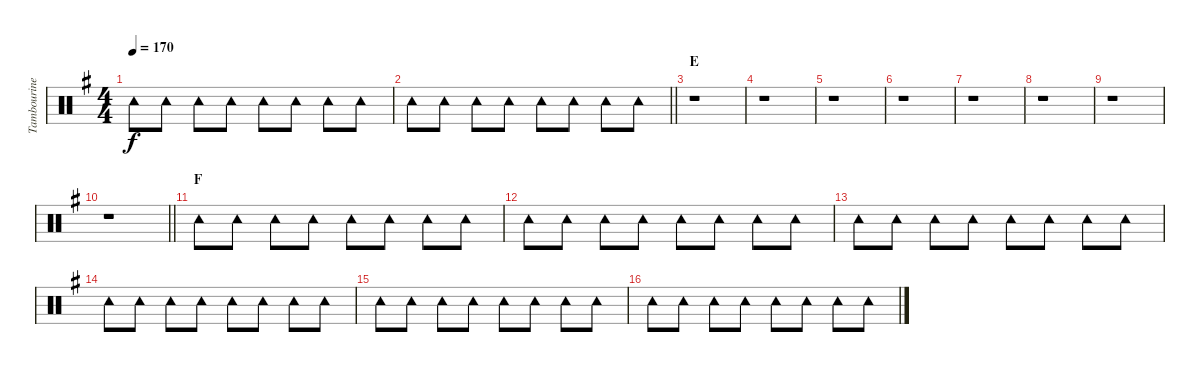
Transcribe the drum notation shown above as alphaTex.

\track ("Tambourine" "Tambourine") {instrument percussion}
\staff {score}
\articulation defaults
\ts (4 4)
\tempo 170
\clef neutral
\ks g "Tambourine (hit)".8{dy f} "Tambourine (hit)".8 "Tambourine (hit)".8 "Tambourine (hit)".8 "Tambourine (hit)".8 "Tambourine (hit)".8 "Tambourine (hit)".8 "Tambourine (hit)".8
|
\barLineRight lightlight "Tambourine (hit)".8 "Tambourine (hit)".8 "Tambourine (hit)".8 "Tambourine (hit)".8 "Tambourine (hit)".8 "Tambourine (hit)".8 "Tambourine (hit)".8 "Tambourine (hit)".8
|
\section ("" "E")
r.1 |
r.1 |
r.1 |
r.1 |
r.1 |
r.1 |
r.1 |
\barLineRight lightlight
r.1 |
\section ("" "F")
"Tambourine (hit)".8 "Tambourine (hit)".8 "Tambourine (hit)".8 "Tambourine (hit)".8 "Tambourine (hit)".8 "Tambourine (hit)".8 "Tambourine (hit)".8 "Tambourine (hit)".8 |
"Tambourine (hit)".8 "Tambourine (hit)".8 "Tambourine (hit)".8 "Tambourine (hit)".8 "Tambourine (hit)".8 "Tambourine (hit)".8 "Tambourine (hit)".8 "Tambourine (hit)".8 |
"Tambourine (hit)".8 "Tambourine (hit)".8 "Tambourine (hit)".8 "Tambourine (hit)".8 "Tambourine (hit)".8 "Tambourine (hit)".8 "Tambourine (hit)".8 "Tambourine (hit)".8 |
"Tambourine (hit)".8 "Tambourine (hit)".8 "Tambourine (hit)".8 "Tambourine (hit)".8 "Tambourine (hit)".8 "Tambourine (hit)".8 "Tambourine (hit)".8 "Tambourine (hit)".8 |
"Tambourine (hit)".8 "Tambourine (hit)".8 "Tambourine (hit)".8 "Tambourine (hit)".8 "Tambourine (hit)".8 "Tambourine (hit)".8 "Tambourine (hit)".8 "Tambourine (hit)".8 |
"Tambourine (hit)".8 "Tambourine (hit)".8 "Tambourine (hit)".8 "Tambourine (hit)".8 "Tambourine (hit)".8 "Tambourine (hit)".8 "Tambourine (hit)".8 "Tambourine (hit)".8
